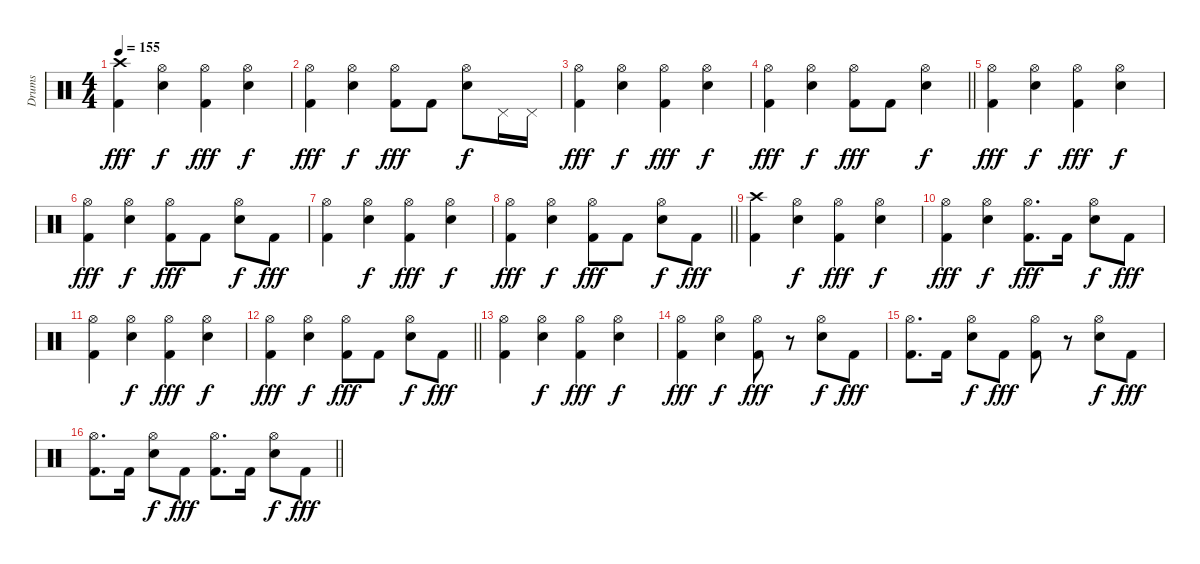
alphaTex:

\track ("Drums" "Drums") {instrument percussion}
\staff {score}
\articulation defaults
\ts (4 4)
\tempo 155
\clef neutral
\ks c
("Crash high (hit)" "Kick (hit) 2").4{dy fff} ("Hi-Hat (open)" "Electric Snare (hit)").4{dy f} ("Hi-Hat (open)" "Kick (hit) 2").4{dy fff} ("Hi-Hat (open)" "Electric Snare (hit)").4{dy f} |
("Hi-Hat (open)" "Kick (hit) 2").4{dy fff} ("Hi-Hat (open)" "Electric Snare (hit)").4{dy f} ("Hi-Hat (open)" "Kick (hit) 2").8{dy fff} "Kick (hit) 2".8 ("Hi-Hat (open)" "Electric Snare (hit)").8{dy f} "Pedal Hi-Hat (hit)".16 "Pedal Hi-Hat (hit)".16 |
("Hi-Hat (open)" "Kick (hit) 2").4{dy fff} ("Hi-Hat (open)" "Electric Snare (hit)").4{dy f} ("Hi-Hat (open)" "Kick (hit) 2").4{dy fff} ("Hi-Hat (open)" "Electric Snare (hit)").4{dy f} |
\barLineRight lightlight
("Hi-Hat (open)" "Kick (hit) 2").4{dy fff} ("Hi-Hat (open)" "Electric Snare (hit)").4{dy f} ("Hi-Hat (open)" "Kick (hit) 2").8{dy fff} "Kick (hit) 2".8 ("Hi-Hat (open)" "Electric Snare (hit)").4{dy f} |
("Hi-Hat (open)" "Kick (hit) 2").4{dy fff} ("Hi-Hat (open)" "Electric Snare (hit)").4{dy f} ("Hi-Hat (open)" "Kick (hit) 2").4{dy fff} ("Hi-Hat (open)" "Electric Snare (hit)").4{dy f} |
("Hi-Hat (open)" "Kick (hit) 2").4{dy fff} ("Hi-Hat (open)" "Electric Snare (hit)").4{dy f} ("Hi-Hat (open)" "Kick (hit) 2").8{dy fff} "Kick (hit) 2".8 ("Hi-Hat (open)" "Electric Snare (hit)").8{dy f} "Kick (hit) 2".8{dy fff} |
("Hi-Hat (open)" "Kick (hit) 2").4 ("Hi-Hat (open)" "Electric Snare (hit)").4{dy f} ("Hi-Hat (open)" "Kick (hit) 2").4{dy fff} ("Hi-Hat (open)" "Electric Snare (hit)").4{dy f} |
\barLineRight lightlight
("Hi-Hat (open)" "Kick (hit) 2").4{dy fff} ("Hi-Hat (open)" "Electric Snare (hit)").4{dy f} ("Hi-Hat (open)" "Kick (hit) 2").8{dy fff} "Kick (hit) 2".8 ("Hi-Hat (open)" "Electric Snare (hit)").8{dy f} "Kick (hit) 2".8{dy fff} |
("Crash high (hit)" "Kick (hit) 2").4 ("Hi-Hat (open)" "Electric Snare (hit)").4{dy f} ("Hi-Hat (open)" "Kick (hit) 2").4{dy fff} ("Hi-Hat (open)" "Electric Snare (hit)").4{dy f} |
("Hi-Hat (open)" "Kick (hit) 2").4{dy fff} ("Hi-Hat (open)" "Electric Snare (hit)").4{dy f} ("Hi-Hat (open)" "Kick (hit) 2").8{d dy fff} "Kick (hit) 2".16 ("Hi-Hat (open)" "Electric Snare (hit)").8{dy f} "Kick (hit) 2".8{dy fff} |
("Hi-Hat (open)" "Kick (hit) 2").4 ("Hi-Hat (open)" "Electric Snare (hit)").4{dy f} ("Hi-Hat (open)" "Kick (hit) 2").4{dy fff} ("Hi-Hat (open)" "Electric Snare (hit)").4{dy f} |
\barLineRight lightlight
("Hi-Hat (open)" "Kick (hit) 2").4{dy fff} ("Hi-Hat (open)" "Electric Snare (hit)").4{dy f} ("Hi-Hat (open)" "Kick (hit) 2").8{dy fff} "Kick (hit) 2".8 ("Hi-Hat (open)" "Electric Snare (hit)").8{dy f} "Kick (hit) 2".8{dy fff} |
("Hi-Hat (open)" "Kick (hit) 2").4 ("Hi-Hat (open)" "Electric Snare (hit)").4{dy f} ("Hi-Hat (open)" "Kick (hit) 2").4{dy fff} ("Hi-Hat (open)" "Electric Snare (hit)").4{dy f} |
("Hi-Hat (open)" "Kick (hit) 2").4{dy fff} ("Hi-Hat (open)" "Electric Snare (hit)").4{dy f} ("Hi-Hat (open)" "Kick (hit) 2").8{dy fff} r.8 ("Hi-Hat (open)" "Electric Snare (hit)").8{dy f} "Kick (hit) 2".8{dy fff} |
("Hi-Hat (open)" "Kick (hit) 2").8{d} "Kick (hit) 2".16 ("Hi-Hat (open)" "Electric Snare (hit)").8{dy f} "Kick (hit) 2".8{dy fff} ("Hi-Hat (open)" "Kick (hit) 2").8 r.8 ("Hi-Hat (open)" "Electric Snare (hit)").8{dy f} "Kick (hit) 2".8{dy fff} |
\barLineRight lightlight
("Hi-Hat (open)" "Kick (hit) 2").8{d} "Kick (hit) 2".16 ("Hi-Hat (open)" "Electric Snare (hit)").8{dy f} "Kick (hit) 2".8{dy fff} ("Hi-Hat (open)" "Kick (hit) 2").8{d} "Kick (hit) 2".16 ("Hi-Hat (open)" "Electric Snare (hit)").8{dy f} "Kick (hit) 2".8{dy fff}
